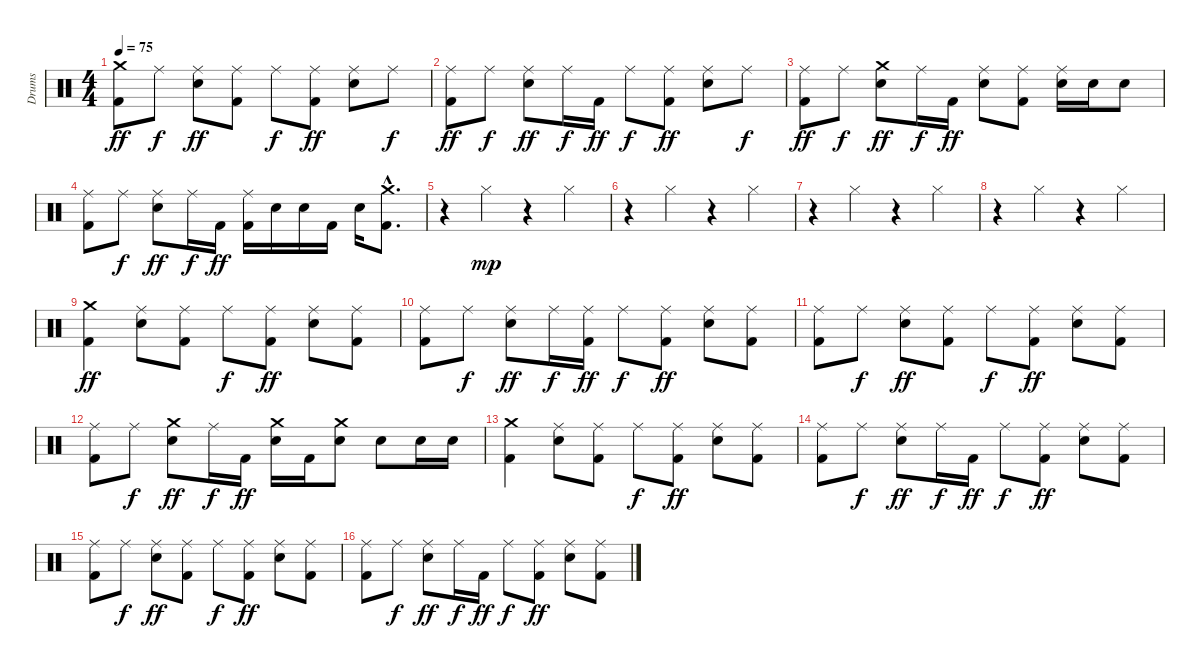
\track ("Drums" "Drums") {instrument percussion}
\staff {score}
\articulation defaults
\ts (4 4)
\tempo 75
\clef neutral
\ks c
("Crash medium (hit)" "Kick (hit) 2").8{dy ff} "Ride (middle)".8{dy f} ("Ride (middle)" "Electric Snare (hit)").8{dy ff} ("Ride (middle)" "Kick (hit) 2").8 "Ride (middle)".8{dy f} ("Ride (middle)" "Kick (hit) 2").8{dy ff} ("Ride (middle)" "Electric Snare (hit)").8 "Ride (middle)".8{dy f} |
("Ride (middle)" "Kick (hit) 2").8{dy ff} "Ride (middle)".8{dy f} ("Ride (middle)" "Electric Snare (hit)").8{dy ff} "Ride (middle)".16{dy f} "Kick (hit) 2".16{dy ff} "Ride (middle)".8{dy f} ("Ride (middle)" "Kick (hit) 2").8{dy ff} ("Ride (middle)" "Electric Snare (hit)").8 "Ride (middle)".8{dy f} |
("Ride (middle)" "Kick (hit) 2").8{dy ff} "Ride (middle)".8{dy f} ("Crash medium (hit)" "Electric Snare (hit)").8{dy ff} "Ride (middle)".16{dy f} "Kick (hit) 2".16{dy ff} ("Ride (middle)" "Electric Snare (hit)").8 ("Ride (middle)" "Kick (hit) 2").8 ("Ride (middle)" "Electric Snare (hit)").16 "Electric Snare (hit)".16 "Electric Snare (hit)".8 |
("Ride (middle)" "Kick (hit) 2").8 "Ride (middle)".8{dy f} ("Ride (middle)" "Electric Snare (hit)").8{dy ff} "Ride (middle)".16{dy f} "Kick (hit) 2".16{dy ff} ("Ride (middle)" "Kick (hit) 2").16 "Electric Snare (hit)".16 "Electric Snare (hit)".16 "Kick (hit) 2".16 "Electric Snare (hit)".16 ("Crash medium (hit)"{hac} "Kick (hit) 2"{hac}).8{d} |
r.4 "Hi-Hat (closed)".4{dy mp} r.4 "Hi-Hat (closed)".4 |
r.4 "Hi-Hat (closed)".4 r.4 "Hi-Hat (closed)".4 |
r.4 "Hi-Hat (closed)".4 r.4 "Hi-Hat (closed)".4 |
r.4 "Hi-Hat (closed)".4 r.4 "Hi-Hat (closed)".4 |
("Crash medium (hit)" "Kick (hit) 2").4{dy ff} ("Ride (middle)" "Electric Snare (hit)").8 ("Ride (middle)" "Kick (hit) 2").8 "Ride (middle)".8{dy f} ("Ride (middle)" "Kick (hit) 2").8{dy ff} ("Ride (middle)" "Electric Snare (hit)").8 ("Ride (middle)" "Kick (hit) 2").8 |
("Ride (middle)" "Kick (hit) 2").8 "Ride (middle)".8{dy f} ("Ride (middle)" "Electric Snare (hit)").8{dy ff} "Ride (middle)".16{dy f} ("Ride (middle)" "Kick (hit) 2").16{dy ff} "Ride (middle)".8{dy f} ("Ride (middle)" "Kick (hit) 2").8{dy ff} ("Ride (middle)" "Electric Snare (hit)").8 ("Ride (middle)" "Kick (hit) 2").8 |
("Ride (middle)" "Kick (hit) 2").8 "Ride (middle)".8{dy f} ("Ride (middle)" "Electric Snare (hit)").8{dy ff} ("Ride (middle)" "Kick (hit) 2").8 "Ride (middle)".8{dy f} ("Ride (middle)" "Kick (hit) 2").8{dy ff} ("Ride (middle)" "Electric Snare (hit)").8 ("Ride (middle)" "Kick (hit) 2").8 |
("Ride (middle)" "Kick (hit) 2").8 "Ride (middle)".8{dy f} ("Crash medium (hit)" "Electric Snare (hit)").8{dy ff} "Ride (middle)".16{dy f} "Kick (hit) 2".16{dy ff} ("Crash medium (hit)" "Electric Snare (hit)").16 "Kick (hit) 2".16 ("Crash medium (hit)" "Electric Snare (hit)").8 "Electric Snare (hit)".8 "Electric Snare (hit)".16 "Electric Snare (hit)".16 |
("Crash medium (hit)" "Kick (hit) 2").4 ("Ride (middle)" "Electric Snare (hit)").8 ("Ride (middle)" "Kick (hit) 2").8 "Ride (middle)".8{dy f} ("Ride (middle)" "Kick (hit) 2").8{dy ff} ("Ride (middle)" "Electric Snare (hit)").8 ("Ride (middle)" "Kick (hit) 2").8 |
("Ride (middle)" "Kick (hit) 2").8 "Ride (middle)".8{dy f} ("Ride (middle)" "Electric Snare (hit)").8{dy ff} "Ride (middle)".16{dy f} "Kick (hit) 2".16{dy ff} "Ride (middle)".8{dy f} ("Ride (middle)" "Kick (hit) 2").8{dy ff} ("Ride (middle)" "Electric Snare (hit)").8 ("Ride (middle)" "Kick (hit) 2").8 |
("Ride (middle)" "Kick (hit) 2").8 "Ride (middle)".8{dy f} ("Ride (middle)" "Electric Snare (hit)").8{dy ff} ("Ride (middle)" "Kick (hit) 2").8 "Ride (middle)".8{dy f} ("Ride (middle)" "Kick (hit) 2").8{dy ff} ("Ride (middle)" "Electric Snare (hit)").8 ("Ride (middle)" "Kick (hit) 2").8 |
("Ride (middle)" "Kick (hit) 2").8 "Ride (middle)".8{dy f} ("Ride (middle)" "Electric Snare (hit)").8{dy ff} "Ride (middle)".16{dy f} "Kick (hit) 2".16{dy ff} "Ride (middle)".8{dy f} ("Ride (middle)" "Kick (hit) 2").8{dy ff} ("Ride (middle)" "Electric Snare (hit)").8 ("Ride (middle)" "Kick (hit) 2").8
